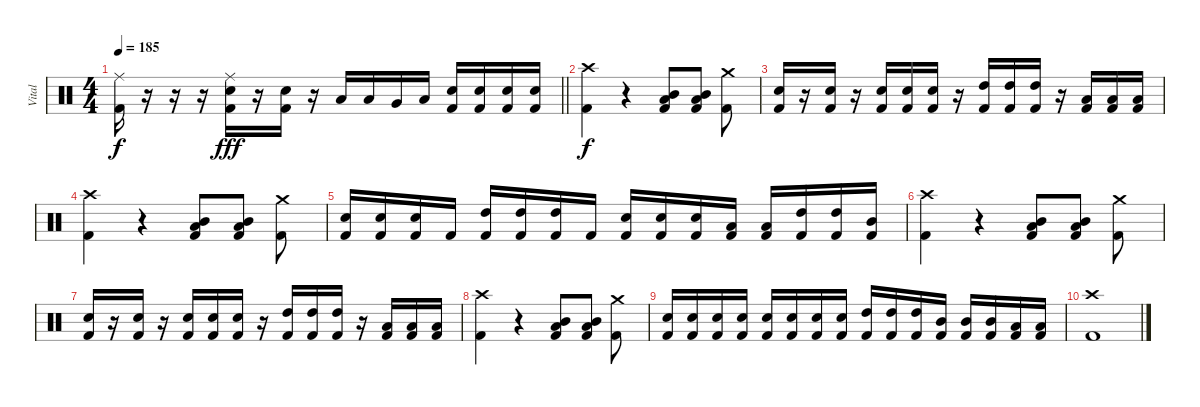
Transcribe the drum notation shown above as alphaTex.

\track ("Vital" "Vital") {instrument percussion}
\staff {score}
\articulation defaults
\ts (4 4)
\tempo 185
\clef neutral
\barLineRight lightlight
\ks c
("Ride (middle)" "Kick (hit) 2").16{dy f} r.16 r.16 r.16 ("Ride (middle)" "Snare (hit) 2" "Kick (hit) 2").16{dy fff} r.16 ("Snare (hit) 2" "Kick (hit) 2").16 r.16 "Low Tom (hit)".16 "Low Tom (hit)".16 "Very Low Tom (hit)".16 "Low Floor Tom (hit)".16 ("Snare (hit) 2" "Kick (hit) 2").16 ("Snare (hit) 2" "Kick (hit) 2").16 ("Snare (hit) 2" "Kick (hit) 2").16 ("Snare (hit) 2" "Kick (hit) 2").16 |
("Crash high (hit)" "Kick (hit) 2").4{dy f} r.4 ("Mid Tom (hit)" "Low Tom (hit)" "Kick (hit) 2").8 ("Mid Tom (hit)" "Low Tom (hit)" "Kick (hit) 2").8 ("Crash medium (hit)" "Kick (hit) 2").8 |
("Snare (hit) 2" "Kick (hit) 2").16 r.16 ("Snare (hit) 2" "Kick (hit) 2").16 r.16 ("Snare (hit) 2" "Kick (hit) 2").16 ("Snare (hit) 2" "Kick (hit) 2").16 ("Snare (hit) 2" "Kick (hit) 2").16 r.16 ("High Tom (hit)" "Kick (hit) 2").16 ("High Tom (hit)" "Kick (hit) 2").16 ("High Tom (hit)" "Kick (hit) 2").16 r.16 ("Low Tom (hit)" "Kick (hit) 2").16 ("Low Tom (hit)" "Kick (hit) 2").16 ("Low Tom (hit)" "Kick (hit) 2").16 |
("Crash high (hit)" "Kick (hit) 2").4 r.4 ("Mid Tom (hit)" "Low Tom (hit)" "Kick (hit) 2").8 ("Mid Tom (hit)" "Low Tom (hit)" "Kick (hit) 2").8 ("Crash medium (hit)" "Kick (hit) 2").8 |
("Snare (hit) 2" "Kick (hit) 2").16 ("Snare (hit) 2" "Kick (hit) 2").16 ("Snare (hit) 2" "Kick (hit) 2").16 "Kick (hit) 2".16 ("High Tom (hit)" "Kick (hit) 2").16 ("High Tom (hit)" "Kick (hit) 2").16 ("High Tom (hit)" "Kick (hit) 2").16 "Kick (hit) 2".16 ("Snare (hit) 2" "Kick (hit) 2").16 ("Snare (hit) 2" "Kick (hit) 2").16 ("Snare (hit) 2" "Kick (hit) 2").16 ("Low Tom (hit)" "Kick (hit) 2").16 ("Low Tom (hit)" "Kick (hit) 2").16 ("High Tom (hit)" "Kick (hit) 2").16 ("High Tom (hit)" "Kick (hit) 2").16 ("Mid Tom (hit)" "Kick (hit) 2").16 |
("Crash high (hit)" "Kick (hit) 2").4 r.4 ("Mid Tom (hit)" "Low Tom (hit)" "Kick (hit) 2").8 ("Mid Tom (hit)" "Low Tom (hit)" "Kick (hit) 2").8 ("Crash medium (hit)" "Kick (hit) 2").8 |
("Snare (hit) 2" "Kick (hit) 2").16 r.16 ("Snare (hit) 2" "Kick (hit) 2").16 r.16 ("Snare (hit) 2" "Kick (hit) 2").16 ("Snare (hit) 2" "Kick (hit) 2").16 ("Snare (hit) 2" "Kick (hit) 2").16 r.16 ("High Tom (hit)" "Kick (hit) 2").16 ("High Tom (hit)" "Kick (hit) 2").16 ("High Tom (hit)" "Kick (hit) 2").16 r.16 ("Low Tom (hit)" "Kick (hit) 2").16 ("Low Tom (hit)" "Kick (hit) 2").16 ("Low Tom (hit)" "Kick (hit) 2").16 |
("Crash high (hit)" "Kick (hit) 2").4 r.4 ("Mid Tom (hit)" "Low Tom (hit)" "Kick (hit) 2").8 ("Mid Tom (hit)" "Low Tom (hit)" "Kick (hit) 2").8 ("Crash medium (hit)" "Kick (hit) 2").8 |
("Snare (hit) 2" "Kick (hit) 2").16 ("Snare (hit) 2" "Kick (hit) 2").16 ("Snare (hit) 2" "Kick (hit) 2").16 ("Snare (hit) 2" "Kick (hit) 2").16 ("Snare (hit) 2" "Kick (hit) 2").16 ("Snare (hit) 2" "Kick (hit) 2").16 ("Snare (hit) 2" "Kick (hit) 2").16 ("Snare (hit) 2" "Kick (hit) 2").16 ("High Tom (hit)" "Kick (hit) 2").16 ("High Tom (hit)" "Kick (hit) 2").16 ("High Tom (hit)" "Kick (hit) 2").16 ("Mid Tom (hit)" "Kick (hit) 2").16 ("Mid Tom (hit)" "Kick (hit) 2").16 ("Mid Tom (hit)" "Kick (hit) 2").16 ("Low Tom (hit)" "Kick (hit) 2").16 ("Low Tom (hit)" "Kick (hit) 2").16 |
("Crash high (hit)" "Kick (hit) 2").1
